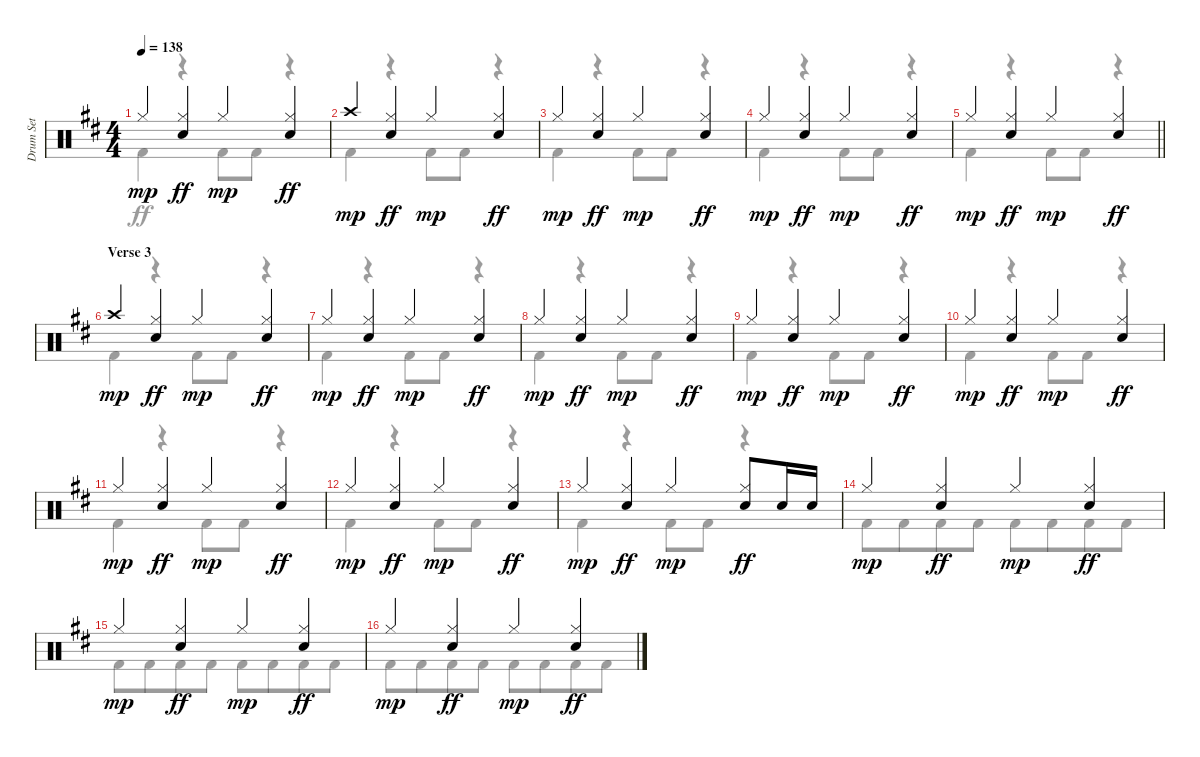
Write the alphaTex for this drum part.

\track ("Drum Set" "Drum Set") {instrument percussion}
\staff {score}
\articulation defaults
\voice
\ts (4 4)
\tempo 138
\clef neutral
\ks d "Hi-Hat (closed)".4{dy mp}
("Hi-Hat (closed)" "Electric Snare (hit)").4{dy ff} "Hi-Hat (closed)".4{dy mp} ("Hi-Hat (closed)" "Electric Snare (hit)").4{dy ff} |
"Crash high (hit)".4{dy mp} ("Hi-Hat (closed)" "Electric Snare (hit)").4{dy ff} "Hi-Hat (closed)".4{dy mp} ("Hi-Hat (closed)" "Electric Snare (hit)").4{dy ff} |
"Hi-Hat (closed)".4{dy mp} ("Hi-Hat (closed)" "Electric Snare (hit)").4{dy ff} "Hi-Hat (closed)".4{dy mp} ("Hi-Hat (closed)" "Electric Snare (hit)").4{dy ff} |
"Hi-Hat (closed)".4{dy mp} ("Hi-Hat (closed)" "Electric Snare (hit)").4{dy ff} "Hi-Hat (closed)".4{dy mp} ("Hi-Hat (closed)" "Electric Snare (hit)").4{dy ff} |
\barLineRight lightlight "Hi-Hat (closed)".4{dy mp}
("Hi-Hat (closed)" "Electric Snare (hit)").4{dy ff} "Hi-Hat (closed)".4{dy mp} ("Hi-Hat (closed)" "Electric Snare (hit)").4{dy ff} |
\section ("" "Verse 3")
"Crash high (hit)".4{dy mp} ("Hi-Hat (closed)" "Electric Snare (hit)").4{dy ff} "Hi-Hat (closed)".4{dy mp} ("Hi-Hat (closed)" "Electric Snare (hit)").4{dy ff} |
"Hi-Hat (closed)".4{dy mp} ("Hi-Hat (closed)" "Electric Snare (hit)").4{dy ff} "Hi-Hat (closed)".4{dy mp} ("Hi-Hat (closed)" "Electric Snare (hit)").4{dy ff} |
"Hi-Hat (closed)".4{dy mp} ("Hi-Hat (closed)" "Electric Snare (hit)").4{dy ff} "Hi-Hat (closed)".4{dy mp} ("Hi-Hat (closed)" "Electric Snare (hit)").4{dy ff} |
"Hi-Hat (closed)".4{dy mp} ("Hi-Hat (closed)" "Electric Snare (hit)").4{dy ff} "Hi-Hat (closed)".4{dy mp} ("Hi-Hat (closed)" "Electric Snare (hit)").4{dy ff} |
"Hi-Hat (closed)".4{dy mp} ("Hi-Hat (closed)" "Electric Snare (hit)").4{dy ff} "Hi-Hat (closed)".4{dy mp} ("Hi-Hat (closed)" "Electric Snare (hit)").4{dy ff} |
"Hi-Hat (closed)".4{dy mp} ("Hi-Hat (closed)" "Electric Snare (hit)").4{dy ff} "Hi-Hat (closed)".4{dy mp} ("Hi-Hat (closed)" "Electric Snare (hit)").4{dy ff} |
"Hi-Hat (closed)".4{dy mp} ("Hi-Hat (closed)" "Electric Snare (hit)").4{dy ff} "Hi-Hat (closed)".4{dy mp} ("Hi-Hat (closed)" "Electric Snare (hit)").4{dy ff} |
"Hi-Hat (closed)".4{dy mp} ("Hi-Hat (closed)" "Electric Snare (hit)").4{dy ff} "Hi-Hat (closed)".4{dy mp} ("Hi-Hat (closed)" "Electric Snare (hit)").8{dy ff} "Electric Snare (hit)".16 "Electric Snare (hit)".16 |
"Hi-Hat (closed)".4{dy mp} ("Hi-Hat (closed)" "Electric Snare (hit)").4{dy ff} "Hi-Hat (closed)".4{dy mp} ("Hi-Hat (closed)" "Electric Snare (hit)").4{dy ff} |
"Hi-Hat (closed)".4{dy mp} ("Hi-Hat (closed)" "Electric Snare (hit)").4{dy ff} "Hi-Hat (closed)".4{dy mp} ("Hi-Hat (closed)" "Electric Snare (hit)").4{dy ff} |
"Hi-Hat (closed)".4{dy mp} ("Hi-Hat (closed)" "Electric Snare (hit)").4{dy ff} "Hi-Hat (closed)".4{dy mp} ("Hi-Hat (closed)" "Electric Snare (hit)").4{dy ff}
\voice
\clef neutral
\ottava regular
\simile none
\ks d "Kick (hit) 2".4{dy ff}
r.4 "Kick (hit) 2".8 "Kick (hit) 2".8 r.4 |
"Kick (hit) 2".4 r.4 "Kick (hit) 2".8 "Kick (hit) 2".8 r.4 |
"Kick (hit) 2".4 r.4 "Kick (hit) 2".8 "Kick (hit) 2".8 r.4 |
"Kick (hit) 2".4 r.4 "Kick (hit) 2".8 "Kick (hit) 2".8 r.4 |
\barLineRight lightlight "Kick (hit) 2".4
r.4 "Kick (hit) 2".8 "Kick (hit) 2".8 r.4 |
"Kick (hit) 2".4 r.4 "Kick (hit) 2".8 "Kick (hit) 2".8 r.4 |
"Kick (hit) 2".4 r.4 "Kick (hit) 2".8 "Kick (hit) 2".8 r.4 |
"Kick (hit) 2".4 r.4 "Kick (hit) 2".8 "Kick (hit) 2".8 r.4 |
"Kick (hit) 2".4 r.4 "Kick (hit) 2".8 "Kick (hit) 2".8 r.4 |
"Kick (hit) 2".4 r.4 "Kick (hit) 2".8 "Kick (hit) 2".8 r.4 |
"Kick (hit) 2".4 r.4 "Kick (hit) 2".8 "Kick (hit) 2".8 r.4 |
"Kick (hit) 2".4 r.4 "Kick (hit) 2".8 "Kick (hit) 2".8 r.4 |
"Kick (hit) 2".4 r.4 "Kick (hit) 2".8 "Kick (hit) 2".8 r.4 |
"Kick (hit) 2".8 "Kick (hit) 2".8{beam merge} "Kick (hit) 2".8 "Kick (hit) 2".8 "Kick (hit) 2".8 "Kick (hit) 2".8{beam merge} "Kick (hit) 2".8 "Kick (hit) 2".8 |
"Kick (hit) 2".8 "Kick (hit) 2".8{beam merge} "Kick (hit) 2".8 "Kick (hit) 2".8 "Kick (hit) 2".8 "Kick (hit) 2".8{beam merge} "Kick (hit) 2".8 "Kick (hit) 2".8 |
"Kick (hit) 2".8 "Kick (hit) 2".8{beam merge} "Kick (hit) 2".8 "Kick (hit) 2".8 "Kick (hit) 2".8 "Kick (hit) 2".8{beam merge} "Kick (hit) 2".8 "Kick (hit) 2".8
